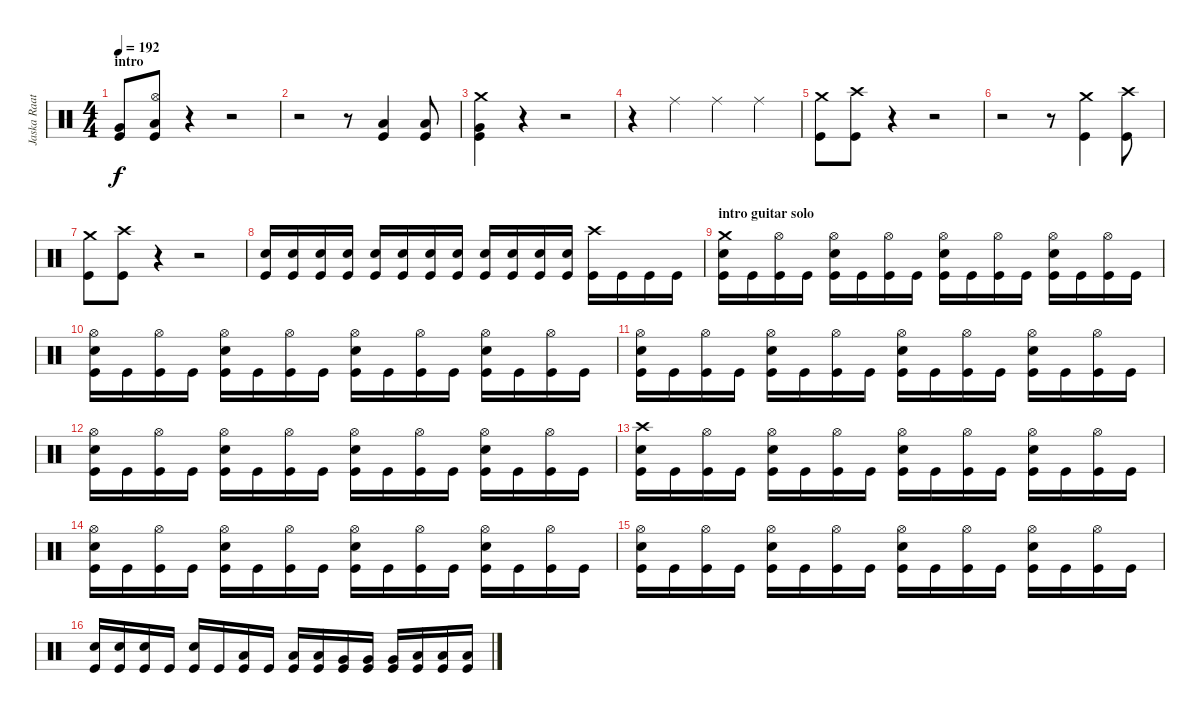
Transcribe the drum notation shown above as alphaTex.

\track ("Jaska Raatikainen" "Jaska Raat") {instrument percussion}
\staff {score}
\articulation defaults
\ts (4 4)
\section ("" "intro")
\tempo 192
\clef neutral
\ks c
("Very Low Tom (hit)" "Kick (hit)").8{dy f} ("Hi-Hat (open)" "Low Floor Tom (hit)" "Kick (hit)").8 r.4 r.2 |
r.2 r.8 ("Low Tom (hit)" "Kick (hit)").4 ("Low Floor Tom (hit)" "Kick (hit)").8 |
("Crash medium (hit)" "Very Low Tom (hit)" "Kick (hit)").4 r.4 r.2 |
r.4 "Ride (middle)".4 "Ride (middle)".4 "Ride (middle)".4 |
("Crash medium (hit)" "Kick (hit)").8 ("Crash high (hit)" "Kick (hit)").8 r.4 r.2 |
r.2 r.8 ("Crash medium (hit)" "Kick (hit)").4 ("Crash high (hit)" "Kick (hit)").8 |
("Crash medium (hit)" "Kick (hit)").8 ("Crash high (hit)" "Kick (hit)").8 r.4 r.2 |
("Electric Snare (hit)" "Kick (hit)").16 ("Electric Snare (hit)" "Kick (hit)").16 ("Electric Snare (hit)" "Kick (hit)").16 ("Electric Snare (hit)" "Kick (hit)").16 ("Electric Snare (hit)" "Kick (hit)").16 ("Electric Snare (hit)" "Kick (hit)").16 ("Electric Snare (hit)" "Kick (hit)").16 ("Electric Snare (hit)" "Kick (hit)").16 ("Electric Snare (hit)" "Kick (hit)").16 ("Electric Snare (hit)" "Kick (hit)").16 ("Electric Snare (hit)" "Kick (hit)").16 ("Electric Snare (hit)" "Kick (hit)").16 ("Crash high (hit)" "Kick (hit)").16 "Kick (hit)".16 "Kick (hit)".16 "Kick (hit)".16 |
\section ("" "intro guitar solo")
("Crash medium (hit)" "Electric Snare (hit)" "Kick (hit)").16 "Kick (hit)".16 ("Hi-Hat (open)" "Kick (hit)").16 "Kick (hit)".16 ("Hi-Hat (open)" "Electric Snare (hit)" "Kick (hit)").16 "Kick (hit)".16 ("Hi-Hat (open)" "Kick (hit)").16 "Kick (hit)".16 ("Hi-Hat (open)" "Electric Snare (hit)" "Kick (hit)").16 "Kick (hit)".16 ("Hi-Hat (open)" "Kick (hit)").16 "Kick (hit)".16 ("Hi-Hat (open)" "Electric Snare (hit)" "Kick (hit)").16 "Kick (hit)".16 ("Hi-Hat (open)" "Kick (hit)").16 "Kick (hit)".16 |
("Hi-Hat (open)" "Electric Snare (hit)" "Kick (hit)").16 "Kick (hit)".16 ("Hi-Hat (open)" "Kick (hit)").16 "Kick (hit)".16 ("Hi-Hat (open)" "Electric Snare (hit)" "Kick (hit)").16 "Kick (hit)".16 ("Hi-Hat (open)" "Kick (hit)").16 "Kick (hit)".16 ("Hi-Hat (open)" "Electric Snare (hit)" "Kick (hit)").16 "Kick (hit)".16 ("Hi-Hat (open)" "Kick (hit)").16 "Kick (hit)".16 ("Hi-Hat (open)" "Electric Snare (hit)" "Kick (hit)").16 "Kick (hit)".16 ("Hi-Hat (open)" "Kick (hit)").16 "Kick (hit)".16 |
("Hi-Hat (open)" "Electric Snare (hit)" "Kick (hit)").16 "Kick (hit)".16 ("Hi-Hat (open)" "Kick (hit)").16 "Kick (hit)".16 ("Hi-Hat (open)" "Electric Snare (hit)" "Kick (hit)").16 "Kick (hit)".16 ("Hi-Hat (open)" "Kick (hit)").16 "Kick (hit)".16 ("Hi-Hat (open)" "Electric Snare (hit)" "Kick (hit)").16 "Kick (hit)".16 ("Hi-Hat (open)" "Kick (hit)").16 "Kick (hit)".16 ("Hi-Hat (open)" "Electric Snare (hit)" "Kick (hit)").16 "Kick (hit)".16 ("Hi-Hat (open)" "Kick (hit)").16 "Kick (hit)".16 |
("Hi-Hat (open)" "Electric Snare (hit)" "Kick (hit)").16 "Kick (hit)".16 ("Hi-Hat (open)" "Kick (hit)").16 "Kick (hit)".16 ("Hi-Hat (open)" "Electric Snare (hit)" "Kick (hit)").16 "Kick (hit)".16 ("Hi-Hat (open)" "Kick (hit)").16 "Kick (hit)".16 ("Hi-Hat (open)" "Electric Snare (hit)" "Kick (hit)").16 "Kick (hit)".16 ("Hi-Hat (open)" "Kick (hit)").16 "Kick (hit)".16 ("Hi-Hat (open)" "Electric Snare (hit)" "Kick (hit)").16 "Kick (hit)".16 ("Hi-Hat (open)" "Kick (hit)").16 "Kick (hit)".16 |
("Crash high (hit)" "Electric Snare (hit)" "Kick (hit)").16 "Kick (hit)".16 ("Hi-Hat (open)" "Kick (hit)").16 "Kick (hit)".16 ("Hi-Hat (open)" "Electric Snare (hit)" "Kick (hit)").16 "Kick (hit)".16 ("Hi-Hat (open)" "Kick (hit)").16 "Kick (hit)".16 ("Hi-Hat (open)" "Electric Snare (hit)" "Kick (hit)").16 "Kick (hit)".16 ("Hi-Hat (open)" "Kick (hit)").16 "Kick (hit)".16 ("Hi-Hat (open)" "Electric Snare (hit)" "Kick (hit)").16 "Kick (hit)".16 ("Hi-Hat (open)" "Kick (hit)").16 "Kick (hit)".16 |
("Hi-Hat (open)" "Electric Snare (hit)" "Kick (hit)").16 "Kick (hit)".16 ("Hi-Hat (open)" "Kick (hit)").16 "Kick (hit)".16 ("Hi-Hat (open)" "Electric Snare (hit)" "Kick (hit)").16 "Kick (hit)".16 ("Hi-Hat (open)" "Kick (hit)").16 "Kick (hit)".16 ("Hi-Hat (open)" "Electric Snare (hit)" "Kick (hit)").16 "Kick (hit)".16 ("Hi-Hat (open)" "Kick (hit)").16 "Kick (hit)".16 ("Hi-Hat (open)" "Electric Snare (hit)" "Kick (hit)").16 "Kick (hit)".16 ("Hi-Hat (open)" "Kick (hit)").16 "Kick (hit)".16 |
("Hi-Hat (open)" "Electric Snare (hit)" "Kick (hit)").16 "Kick (hit)".16 ("Hi-Hat (open)" "Kick (hit)").16 "Kick (hit)".16 ("Hi-Hat (open)" "Electric Snare (hit)" "Kick (hit)").16 "Kick (hit)".16 ("Hi-Hat (open)" "Kick (hit)").16 "Kick (hit)".16 ("Hi-Hat (open)" "Electric Snare (hit)" "Kick (hit)").16 "Kick (hit)".16 ("Hi-Hat (open)" "Kick (hit)").16 "Kick (hit)".16 ("Hi-Hat (open)" "Electric Snare (hit)" "Kick (hit)").16 "Kick (hit)".16 ("Hi-Hat (open)" "Kick (hit)").16 "Kick (hit)".16 |
("Electric Snare (hit)" "Kick (hit)").16 ("Electric Snare (hit)" "Kick (hit)").16 ("Electric Snare (hit)" "Kick (hit)").16 "Kick (hit)".16 ("Electric Snare (hit)" "Kick (hit)").16 "Kick (hit)".16 ("Low Tom (hit)" "Kick (hit)").16 "Kick (hit)".16 ("Low Tom (hit)" "Kick (hit)").16 ("Low Tom (hit)" "Kick (hit)").16 ("Very Low Tom (hit)" "Kick (hit)").16 ("Very Low Tom (hit)" "Kick (hit)").16 ("Very Low Tom (hit)" "Kick (hit)").16 ("Low Floor Tom (hit)" "Kick (hit)").16 ("Low Floor Tom (hit)" "Kick (hit)").16 ("Low Floor Tom (hit)" "Kick (hit)").16
